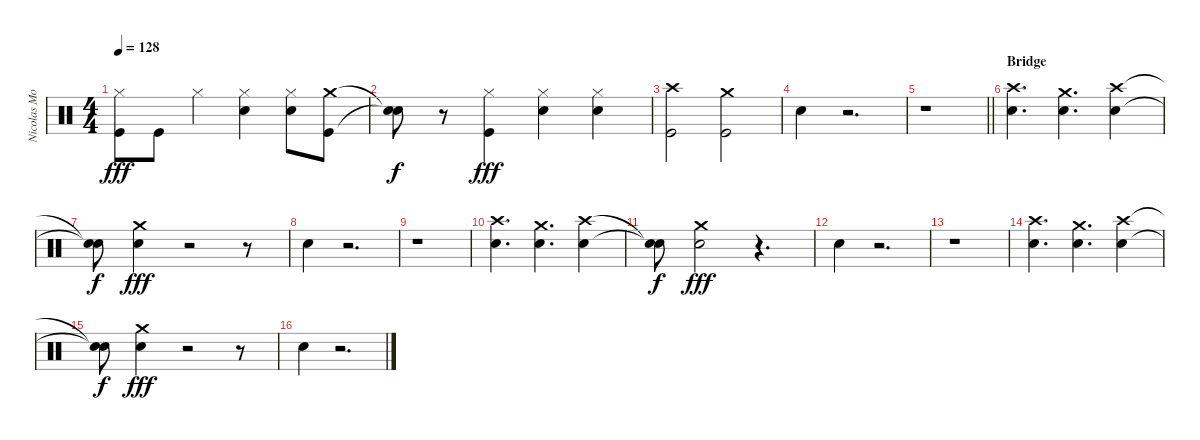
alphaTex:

\track ("Nicolas Mosquera" "Nicolas Mo") {mute instrument percussion}
\staff {score}
\articulation defaults
\ts (4 4)
\tempo 128
\clef neutral
\ks c
("Kick (hit)" "Hi-Hat (closed)").8{dy fff} "Kick (hit)".8 "Hi-Hat (closed)".4 ("Snare (hit) 2" "Hi-Hat (closed)").4 ("Snare (hit) 2" "Hi-Hat (closed)").8 ("Kick (hit)" "Crash medium (hit)").8 |
("Snare (hit)"{t} "Snare (hit)"{t}).8{dy f} r.8 ("Kick (hit)" "Hi-Hat (closed)").4{dy fff} ("Snare (hit) 2" "Hi-Hat (closed)").4 ("Snare (hit) 2" "Hi-Hat (closed)").4 |
("Crash high (hit)" "Kick (hit)").2 ("Crash medium (hit)" "Kick (hit)").2 |
"Snare (hit) 2".4 r.2{d} |
\barLineRight lightlight
r.1 |
\section ("" "Bridge")
("Snare (hit) 2" "Crash high (hit)").4{d} ("Snare (hit) 2" "Crash medium (hit)").4{d} ("Crash high (hit)" "Snare (hit) 2").4 |
("Snare (hit)"{t} "Snare (hit)"{t}).8{dy f} ("Snare (hit) 2" "Crash medium (hit)").4{dy fff} r.2 r.8 |
"Snare (hit) 2".4 r.2{d} |
r.1 |
("Snare (hit) 2" "Crash high (hit)").4{d} ("Snare (hit) 2" "Crash medium (hit)").4{d} ("Snare (hit) 2" "Crash high (hit)").4 |
("Snare (hit)"{t} "Snare (hit)"{t}).8{dy f} ("Snare (hit) 2" "Crash medium (hit)").2{dy fff} r.4{d} |
"Snare (hit) 2".4 r.2{d} |
r.1 |
("Snare (hit) 2" "Crash high (hit)").4{d} ("Snare (hit) 2" "Crash medium (hit)").4{d} ("Snare (hit) 2" "Crash high (hit)").4 |
("Snare (hit)"{t} "Snare (hit)"{t}).8{dy f} ("Snare (hit) 2" "Crash medium (hit)").4{dy fff} r.2 r.8 |
"Snare (hit) 2".4 r.2{d}
